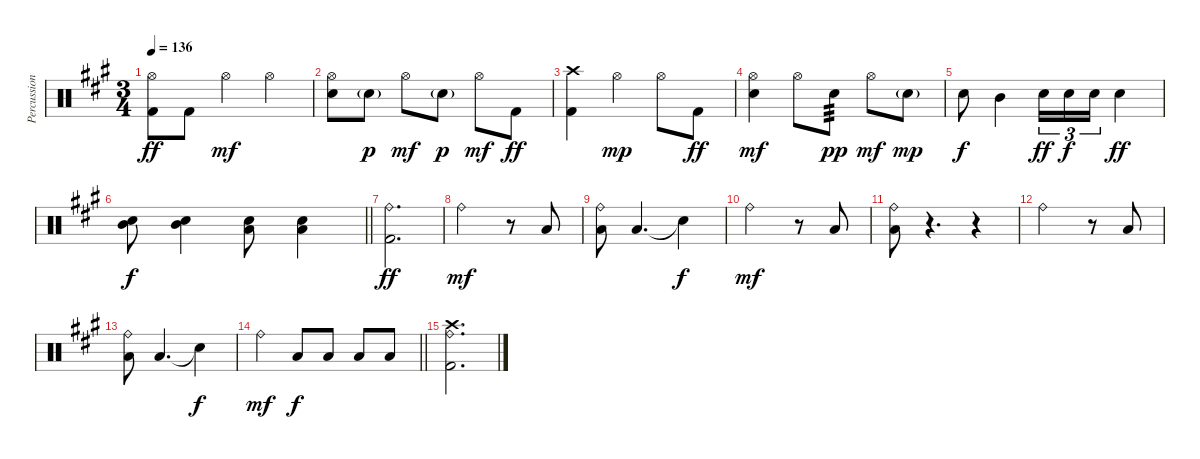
\track ("Percussion" "Percussion") {solo instrument percussion}
\staff {score}
\articulation defaults
\ts (3 4)
\tempo 136
\clef neutral
\ks a
("Hi-Hat (open)" "Kick (hit) 2").8{dy ff} "Kick (hit) 2".8 "Hi-Hat (open)".4{dy mf} "Hi-Hat (open)".4 |
("Hi-Hat (open)" "Snare (hit) 2").8 "Snare (hit) 2"{g}.8{dy p} "Hi-Hat (open)".8{dy mf} "Snare (hit) 2"{g}.8{dy p} "Hi-Hat (open)".8{dy mf} "Kick (hit) 2".8{dy ff} |
("Crash high (hit)" "Kick (hit) 2").4 "Hi-Hat (open)".4{dy mp} "Hi-Hat (open)".8 "Kick (hit) 2".8{dy ff} |
("Hi-Hat (open)" "Snare (hit) 2").4{dy mf} "Hi-Hat (open)".8 "Snare (hit) 2".8{tp 3 dy pp} "Hi-Hat (open)".8{dy mf} "Snare (hit) 2"{g}.8{dy mp} |
"Snare (hit) 2".8{dy f} "Mid Tom (hit)".4 "Snare (hit) 2".16{tu (3 2) dy ff} "Snare (hit) 2".16{tu (3 2) dy f} "Snare (hit) 2".16{tu (3 2)} "Snare (hit) 2".4{dy ff} |
\barLineRight lightlight
("Mid Tom (hit)" "Snare (hit) 2").8{dy f} ("Mid Tom (hit)" "Snare (hit) 2").4 ("Snare (hit) 2" "Low Floor Tom (hit)").8 ("Snare (hit) 2" "Low Floor Tom (hit)").4 |
("Ride (bell)" "Kick (hit) 2").2{d dy ff} |
"Ride (bell)".2{dy mf} r.8 "Low Floor Tom (hit)".8 |
("Ride (bell)" "Low Floor Tom (hit)").8 "Low Floor Tom (hit)".4{d} "Snare (hit)"{t}.4{dy f} |
"Ride (bell)".2{dy mf} r.8 "Low Floor Tom (hit)".8 |
("Ride (bell)" "Low Floor Tom (hit)").8 r.4{d} r.4 |
"Ride (bell)".2 r.8 "Low Floor Tom (hit)".8 |
("Ride (bell)" "Low Floor Tom (hit)").8 "Low Floor Tom (hit)".4{d} "Snare (hit)"{t}.4{dy f} |
\barLineRight lightlight "Ride (bell)".4{dy mf} "Low Tom (hit)".8{dy f} "Low Tom (hit)".8 "Low Floor Tom (hit)".8 "Low Floor Tom (hit)".8
|
("Crash high (hit)" "Kick (hit) 2" "Ride (bell)").2{d}
